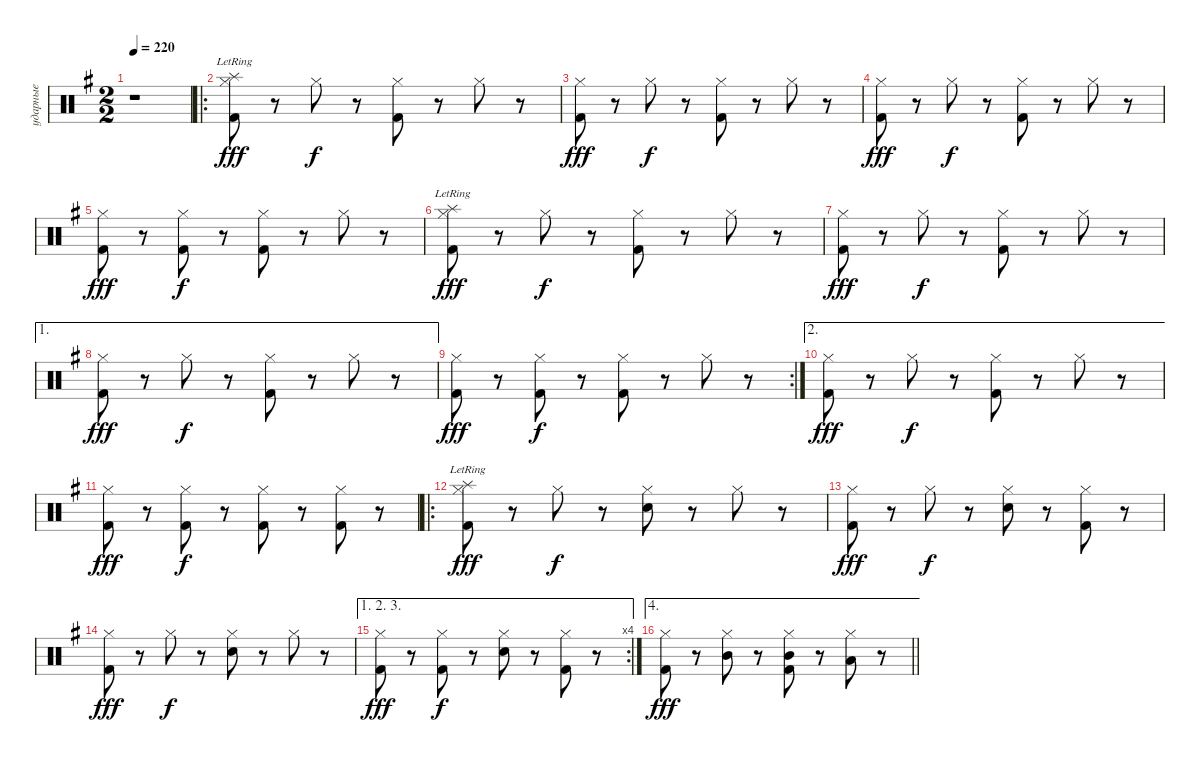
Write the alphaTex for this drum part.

\track ("ударные" "ударные") {instrument percussion}
\staff {score}
\articulation defaults
\ts (2 2)
\tempo 220
\clef neutral
\ks eminor
r.1{dy fff} |
\ro
("Hi-Hat (closed)" "Splash (hit)"{lr} "Kick (hit) 2").8 r.8 "Hi-Hat (closed)".8{dy f} r.8 ("Hi-Hat (closed)" "Kick (hit) 2").8 r.8 "Hi-Hat (closed)".8 r.8 |
("Hi-Hat (closed)" "Kick (hit) 2").8{dy fff} r.8 "Hi-Hat (closed)".8{dy f} r.8 ("Hi-Hat (closed)" "Kick (hit) 2").8 r.8 "Hi-Hat (closed)".8 r.8 |
("Hi-Hat (closed)" "Kick (hit) 2").8{dy fff} r.8 "Hi-Hat (closed)".8{dy f} r.8 ("Hi-Hat (closed)" "Kick (hit) 2").8 r.8 "Hi-Hat (closed)".8 r.8 |
("Hi-Hat (closed)" "Kick (hit) 2").8{dy fff} r.8 ("Hi-Hat (closed)" "Kick (hit) 2").8{dy f} r.8 ("Hi-Hat (closed)" "Kick (hit) 2").8 r.8 "Hi-Hat (closed)".8 r.8 |
("Hi-Hat (closed)" "Splash (hit)"{lr} "Kick (hit) 2").8{dy fff} r.8 "Hi-Hat (closed)".8{dy f} r.8 ("Hi-Hat (closed)" "Kick (hit) 2").8 r.8 "Hi-Hat (closed)".8 r.8 |
("Hi-Hat (closed)" "Kick (hit) 2").8{dy fff} r.8 "Hi-Hat (closed)".8{dy f} r.8 ("Hi-Hat (closed)" "Kick (hit) 2").8 r.8 "Hi-Hat (closed)".8 r.8 |
\ae 1
("Hi-Hat (closed)" "Kick (hit) 2").8{dy fff} r.8 "Hi-Hat (closed)".8{dy f} r.8 ("Hi-Hat (closed)" "Kick (hit) 2").8 r.8 "Hi-Hat (closed)".8 r.8 |
\rc 2
("Hi-Hat (closed)" "Kick (hit) 2").8{dy fff} r.8 ("Hi-Hat (closed)" "Kick (hit) 2").8{dy f} r.8 ("Hi-Hat (closed)" "Kick (hit) 2").8 r.8 "Hi-Hat (closed)".8 r.8 |
\ae 2
("Hi-Hat (closed)" "Kick (hit) 2").8{dy fff} r.8 "Hi-Hat (closed)".8{dy f} r.8 ("Hi-Hat (closed)" "Kick (hit) 2").8 r.8 "Hi-Hat (closed)".8 r.8 |
("Hi-Hat (closed)" "Kick (hit) 2").8{dy fff} r.8 ("Hi-Hat (closed)" "Kick (hit) 2").8{dy f} r.8 ("Hi-Hat (closed)" "Kick (hit) 2").8 r.8 ("Hi-Hat (closed)" "Kick (hit) 2").8 r.8 |
\ro
("Hi-Hat (closed)" "Splash (hit)"{lr} "Kick (hit) 2").8{dy fff} r.8 "Hi-Hat (closed)".8{dy f} r.8 ("Hi-Hat (closed)" "Snare (hit) 2").8 r.8 "Hi-Hat (closed)".8 r.8 |
("Hi-Hat (closed)" "Kick (hit) 2").8{dy fff} r.8 "Hi-Hat (closed)".8{dy f} r.8 ("Hi-Hat (closed)" "Snare (hit) 2").8 r.8 ("Hi-Hat (closed)" "Kick (hit) 2").8 r.8 |
("Hi-Hat (closed)" "Kick (hit) 2").8{dy fff} r.8 "Hi-Hat (closed)".8{dy f} r.8 ("Hi-Hat (closed)" "Snare (hit) 2").8 r.8 "Hi-Hat (closed)".8 r.8 |
\ae (1 2 3)
\rc 4
("Hi-Hat (closed)" "Kick (hit) 2").8{dy fff} r.8 ("Hi-Hat (closed)" "Kick (hit) 2").8{dy f} r.8 ("Hi-Hat (closed)" "Snare (hit) 2").8 r.8 ("Hi-Hat (closed)" "Kick (hit) 2").8 r.8 |
\ae 4
\barLineRight lightlight
("Hi-Hat (closed)" "Kick (hit) 2").8{dy fff} r.8 ("Hi-Hat (closed)" "Mid Tom (hit)").8 r.8 ("Hi-Hat (closed)" "Mid Tom (hit)" "Kick (hit) 2").8 r.8 ("Hi-Hat (closed)" "Low Tom (hit)").8 r.8
